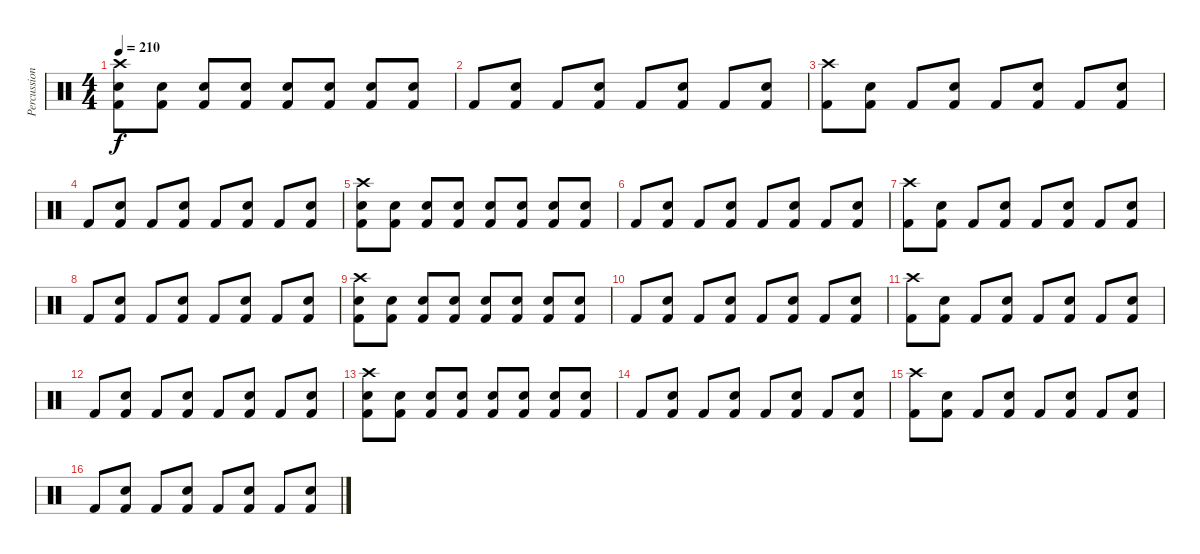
\track ("Percussion" "Percussion") {instrument percussion}
\staff {score}
\articulation defaults
\ts (4 4)
\tempo 210
\clef neutral
\ks c
("Kick (hit) 2" "Snare (hit) 2" "Crash high (hit)").8{dy f} ("Kick (hit) 2" "Snare (hit) 2").8 ("Kick (hit) 2" "Snare (hit) 2").8 ("Kick (hit) 2" "Snare (hit) 2").8 ("Kick (hit) 2" "Snare (hit) 2").8 ("Kick (hit) 2" "Snare (hit) 2").8 ("Kick (hit) 2" "Snare (hit) 2").8 ("Kick (hit) 2" "Snare (hit) 2").8 |
"Kick (hit) 2".8{volume 10} ("Kick (hit) 2" "Snare (hit) 2").8 "Kick (hit) 2".8 ("Kick (hit) 2" "Snare (hit) 2").8 "Kick (hit) 2".8 ("Kick (hit) 2" "Snare (hit) 2").8 "Kick (hit) 2".8 ("Kick (hit) 2" "Snare (hit) 2").8 |
("Kick (hit) 2" "Crash high (hit)").8 ("Kick (hit) 2" "Snare (hit) 2").8 "Kick (hit) 2".8 ("Kick (hit) 2" "Snare (hit) 2").8 "Kick (hit) 2".8 ("Kick (hit) 2" "Snare (hit) 2").8 "Kick (hit) 2".8 ("Kick (hit) 2" "Snare (hit) 2").8 |
"Kick (hit) 2".8 ("Kick (hit) 2" "Snare (hit) 2").8 "Kick (hit) 2".8 ("Kick (hit) 2" "Snare (hit) 2").8 "Kick (hit) 2".8 ("Kick (hit) 2" "Snare (hit) 2").8 "Kick (hit) 2".8 ("Kick (hit) 2" "Snare (hit) 2").8 |
("Kick (hit) 2" "Snare (hit) 2" "Crash high (hit)").8 ("Kick (hit) 2" "Snare (hit) 2").8 ("Kick (hit) 2" "Snare (hit) 2").8 ("Kick (hit) 2" "Snare (hit) 2").8 ("Kick (hit) 2" "Snare (hit) 2").8 ("Kick (hit) 2" "Snare (hit) 2").8 ("Kick (hit) 2" "Snare (hit) 2").8 ("Kick (hit) 2" "Snare (hit) 2").8 |
"Kick (hit) 2".8 ("Kick (hit) 2" "Snare (hit) 2").8 "Kick (hit) 2".8 ("Kick (hit) 2" "Snare (hit) 2").8 "Kick (hit) 2".8 ("Kick (hit) 2" "Snare (hit) 2").8 "Kick (hit) 2".8 ("Kick (hit) 2" "Snare (hit) 2").8 |
("Kick (hit) 2" "Crash high (hit)").8 ("Kick (hit) 2" "Snare (hit) 2").8 "Kick (hit) 2".8 ("Kick (hit) 2" "Snare (hit) 2").8 "Kick (hit) 2".8 ("Kick (hit) 2" "Snare (hit) 2").8 "Kick (hit) 2".8 ("Kick (hit) 2" "Snare (hit) 2").8 |
"Kick (hit) 2".8 ("Kick (hit) 2" "Snare (hit) 2").8 "Kick (hit) 2".8 ("Kick (hit) 2" "Snare (hit) 2").8 "Kick (hit) 2".8 ("Kick (hit) 2" "Snare (hit) 2").8 "Kick (hit) 2".8 ("Kick (hit) 2" "Snare (hit) 2").8 |
("Kick (hit) 2" "Snare (hit) 2" "Crash high (hit)").8 ("Kick (hit) 2" "Snare (hit) 2").8 ("Kick (hit) 2" "Snare (hit) 2").8 ("Kick (hit) 2" "Snare (hit) 2").8 ("Kick (hit) 2" "Snare (hit) 2").8 ("Kick (hit) 2" "Snare (hit) 2").8 ("Kick (hit) 2" "Snare (hit) 2").8 ("Kick (hit) 2" "Snare (hit) 2").8 |
"Kick (hit) 2".8 ("Kick (hit) 2" "Snare (hit) 2").8 "Kick (hit) 2".8 ("Kick (hit) 2" "Snare (hit) 2").8 "Kick (hit) 2".8 ("Kick (hit) 2" "Snare (hit) 2").8 "Kick (hit) 2".8 ("Kick (hit) 2" "Snare (hit) 2").8 |
("Kick (hit) 2" "Crash high (hit)").8 ("Kick (hit) 2" "Snare (hit) 2").8 "Kick (hit) 2".8 ("Kick (hit) 2" "Snare (hit) 2").8 "Kick (hit) 2".8 ("Kick (hit) 2" "Snare (hit) 2").8 "Kick (hit) 2".8 ("Kick (hit) 2" "Snare (hit) 2").8 |
"Kick (hit) 2".8 ("Kick (hit) 2" "Snare (hit) 2").8 "Kick (hit) 2".8 ("Kick (hit) 2" "Snare (hit) 2").8 "Kick (hit) 2".8 ("Kick (hit) 2" "Snare (hit) 2").8 "Kick (hit) 2".8 ("Kick (hit) 2" "Snare (hit) 2").8 |
("Kick (hit) 2" "Snare (hit) 2" "Crash high (hit)").8 ("Kick (hit) 2" "Snare (hit) 2").8 ("Kick (hit) 2" "Snare (hit) 2").8 ("Kick (hit) 2" "Snare (hit) 2").8 ("Kick (hit) 2" "Snare (hit) 2").8 ("Kick (hit) 2" "Snare (hit) 2").8 ("Kick (hit) 2" "Snare (hit) 2").8 ("Kick (hit) 2" "Snare (hit) 2").8 |
"Kick (hit) 2".8 ("Kick (hit) 2" "Snare (hit) 2").8 "Kick (hit) 2".8 ("Kick (hit) 2" "Snare (hit) 2").8 "Kick (hit) 2".8 ("Kick (hit) 2" "Snare (hit) 2").8 "Kick (hit) 2".8 ("Kick (hit) 2" "Snare (hit) 2").8 |
("Kick (hit) 2" "Crash high (hit)").8 ("Kick (hit) 2" "Snare (hit) 2").8 "Kick (hit) 2".8 ("Kick (hit) 2" "Snare (hit) 2").8 "Kick (hit) 2".8 ("Kick (hit) 2" "Snare (hit) 2").8 "Kick (hit) 2".8 ("Kick (hit) 2" "Snare (hit) 2").8 |
"Kick (hit) 2".8 ("Kick (hit) 2" "Snare (hit) 2").8 "Kick (hit) 2".8 ("Kick (hit) 2" "Snare (hit) 2").8 "Kick (hit) 2".8 ("Kick (hit) 2" "Snare (hit) 2").8 "Kick (hit) 2".8 ("Kick (hit) 2" "Snare (hit) 2").8
